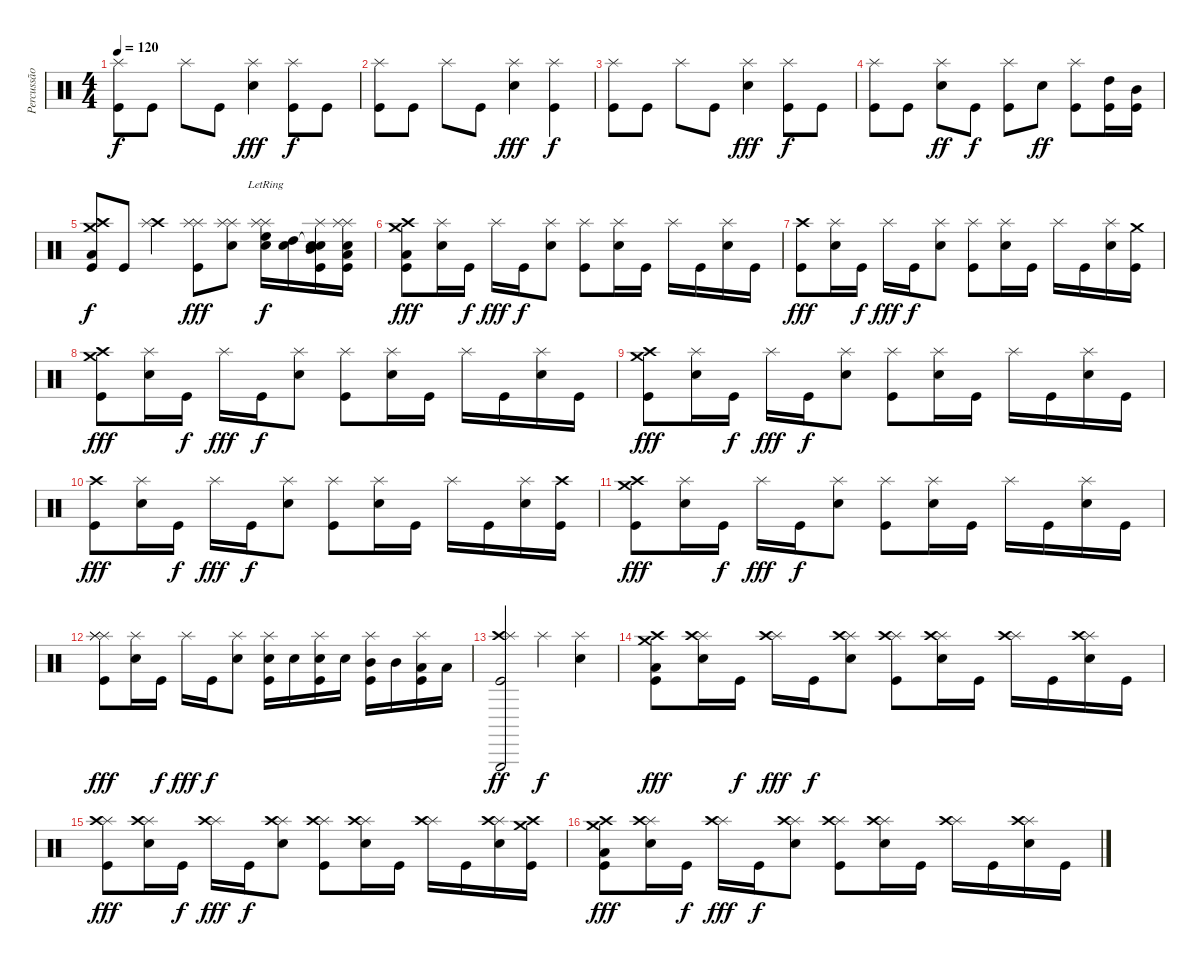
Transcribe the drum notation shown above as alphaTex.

\track ("Percussão" "Percussão") {instrument percussion}
\staff {score}
\articulation defaults
\ts (4 4)
\tempo 120
\clef neutral
\ks c
("Splash (hit)" "Kick (hit)").8{dy f} "Kick (hit)".8 "Splash (hit)".8 "Kick (hit)".8 ("Splash (hit)" "Snare (hit) 2").4{dy fff} ("Splash (hit)" "Kick (hit)").8{dy f} "Kick (hit)".8 |
("Splash (hit)" "Kick (hit)").8 "Kick (hit)".8 "Splash (hit)".8 "Kick (hit)".8 ("Splash (hit)" "Snare (hit) 2").4{dy fff} ("Splash (hit)" "Kick (hit)").4{dy f} |
("Splash (hit)" "Kick (hit)").8 "Kick (hit)".8 "Splash (hit)".8 "Kick (hit)".8 ("Splash (hit)" "Snare (hit) 2").4{dy fff} ("Splash (hit)" "Kick (hit)").8{dy f} "Kick (hit)".8 |
("Splash (hit)" "Kick (hit)").8 "Kick (hit)".8 ("Splash (hit)" "Snare (hit) 2").8{dy ff} "Kick (hit)".8{dy f} ("Splash (hit)" "Kick (hit)").8 "Snare (hit) 2".8{dy ff} ("Splash (hit)" "Kick (hit)").8 ("High Tom (hit)" "Kick (hit)").16 ("Mid Tom (hit)" "Kick (hit)").16 |
("Crash high (hit)" "Crash medium (hit)" "Low Tom (hit)" "Kick (hit)").8{dy f} "Kick (hit)".8 ("Crash high (hit)" "Splash (hit)").4 ("Splash (hit)" "Splash (hit)" "Kick (hit)").8{dy fff} ("Splash (hit)" "Splash (hit)" "Snare (hit) 2").8 ("Splash (hit)"{lr} "Splash (hit)"{lr} "High Floor Tom (hit)" "Snare (hit) 2").16{dy f} ("High Tom (hit)" "Snare (hit) 2").16 ("Splash (hit)" "Snare (hit)"{t} "Mid Tom (hit)" "Snare (hit) 2" "Kick (hit)").16 ("Splash (hit)" "Splash (hit)" "Low Tom (hit)" "Snare (hit) 2" "Kick (hit)").16 |
("Crash high (hit)" "Crash medium (hit)" "Low Floor Tom (hit)" "Kick (hit)").8{dy fff} ("Splash (hit)" "Snare (hit) 2").16 "Kick (hit)".16{dy f} "Splash (hit)".16{dy fff} "Kick (hit)".16{dy f} ("Splash (hit)" "Snare (hit) 2").8 ("Splash (hit)" "Kick (hit)").8 ("Splash (hit)" "Snare (hit) 2").16 "Kick (hit)".16 "Splash (hit)".16 "Kick (hit)".16 ("Splash (hit)" "Snare (hit) 2").16 "Kick (hit)".16 |
("Crash high (hit)" "Kick (hit)").8{dy fff} ("Splash (hit)" "Snare (hit) 2").16 "Kick (hit)".16{dy f} "Splash (hit)".16{dy fff} "Kick (hit)".16{dy f} ("Splash (hit)" "Snare (hit) 2").8 ("Splash (hit)" "Kick (hit)").8 ("Splash (hit)" "Snare (hit) 2").16 "Kick (hit)".16 "Splash (hit)".16 "Kick (hit)".16 ("Splash (hit)" "Snare (hit) 2").16 ("Crash medium (hit)" "Kick (hit)").16 |
("Crash high (hit)" "Crash medium (hit)" "Kick (hit)").8{dy fff} ("Splash (hit)" "Snare (hit) 2").16 "Kick (hit)".16{dy f} "Splash (hit)".16{dy fff} "Kick (hit)".16{dy f} ("Splash (hit)" "Snare (hit) 2").8 ("Splash (hit)" "Kick (hit)").8 ("Splash (hit)" "Snare (hit) 2").16 "Kick (hit)".16 "Splash (hit)".16 "Kick (hit)".16 ("Splash (hit)" "Snare (hit) 2").16 "Kick (hit)".16 |
("Crash high (hit)" "Crash medium (hit)" "Kick (hit)").8{dy fff} ("Splash (hit)" "Snare (hit) 2").16 "Kick (hit)".16{dy f} "Splash (hit)".16{dy fff} "Kick (hit)".16{dy f} ("Splash (hit)" "Snare (hit) 2").8 ("Splash (hit)" "Kick (hit)").8 ("Splash (hit)" "Snare (hit) 2").16 "Kick (hit)".16 "Splash (hit)".16 "Kick (hit)".16 ("Splash (hit)" "Snare (hit) 2").16 "Kick (hit)".16 |
("Crash high (hit)" "Kick (hit)").8{dy fff} ("Splash (hit)" "Snare (hit) 2").16 "Kick (hit)".16{dy f} "Splash (hit)".16{dy fff} "Kick (hit)".16{dy f} ("Splash (hit)" "Snare (hit) 2").8 ("Splash (hit)" "Kick (hit)").8 ("Splash (hit)" "Snare (hit) 2").16 "Kick (hit)".16 "Splash (hit)".16 "Kick (hit)".16 ("Splash (hit)" "Snare (hit) 2").16 ("Crash high (hit)" "Kick (hit)").16 |
("Crash high (hit)" "Crash medium (hit)" "Kick (hit)").8{dy fff} ("Splash (hit)" "Snare (hit) 2").16 "Kick (hit)".16{dy f} "Splash (hit)".16{dy fff} "Kick (hit)".16{dy f} ("Splash (hit)" "Snare (hit) 2").8 ("Splash (hit)" "Kick (hit)").8 ("Splash (hit)" "Snare (hit) 2").16 "Kick (hit)".16 "Splash (hit)".16 "Kick (hit)".16 ("Splash (hit)" "Snare (hit) 2").16 "Kick (hit)".16 |
("Splash (hit)" "Splash (hit)" "Splash (hit)" "Kick (hit)").8{dy fff} ("Splash (hit)" "Snare (hit) 2").16 "Kick (hit)".16{dy f} "Splash (hit)".16{dy fff} "Kick (hit)".16{dy f} ("Splash (hit)" "Snare (hit) 2").8 ("Splash (hit)" "Snare (hit) 2" "Kick (hit)").16 "Snare (hit) 2".16 ("Splash (hit)" "Snare (hit) 2" "Kick (hit)").16 "Snare (hit) 2".16 ("Splash (hit)" "Mid Tom (hit)" "Kick (hit)").16 "Mid Tom (hit)".16 ("Splash (hit)" "Low Tom (hit)" "Kick (hit)").16 "Low Tom (hit)".16 |
("Crash high (hit)" "Splash (hit)" "Triangle (hit)" "Kick (hit)").2{dy ff} "Splash (hit)".4{dy f} ("Splash (hit)" "Snare (hit) 2").4 |
("Crash high (hit)" "Crash medium (hit)" "Low Floor Tom (hit)" "Kick (hit)").8{dy fff} ("Splash (hit)" "Crash high (hit)" "Snare (hit) 2").16 "Kick (hit)".16{dy f} ("Splash (hit)" "Crash high (hit)").16{dy fff} "Kick (hit)".16{dy f} ("Splash (hit)" "Crash high (hit)" "Snare (hit) 2").8 ("Splash (hit)" "Crash high (hit)" "Kick (hit)").8 ("Splash (hit)" "Crash high (hit)" "Snare (hit) 2").16 "Kick (hit)".16 ("Splash (hit)" "Crash high (hit)").16 "Kick (hit)".16 ("Splash (hit)" "Crash high (hit)" "Snare (hit) 2").16 "Kick (hit)".16 |
("Splash (hit)" "Crash high (hit)" "Kick (hit)").8{dy fff} ("Splash (hit)" "Crash high (hit)" "Snare (hit) 2").16 "Kick (hit)".16{dy f} ("Splash (hit)" "Crash high (hit)").16{dy fff} "Kick (hit)".16{dy f} ("Splash (hit)" "Crash high (hit)" "Snare (hit) 2").8 ("Splash (hit)" "Crash high (hit)" "Kick (hit)").8 ("Splash (hit)" "Crash high (hit)" "Snare (hit) 2").16 "Kick (hit)".16 ("Splash (hit)" "Crash high (hit)").16 "Kick (hit)".16 ("Splash (hit)" "Crash high (hit)" "Snare (hit) 2").16 ("Crash medium (hit)" "Crash high (hit)" "Kick (hit)").16 |
("Crash high (hit)" "Crash medium (hit)" "Low Floor Tom (hit)" "Kick (hit)").8{dy fff} ("Splash (hit)" "Crash high (hit)" "Snare (hit) 2").16 "Kick (hit)".16{dy f} ("Splash (hit)" "Crash high (hit)").16{dy fff} "Kick (hit)".16{dy f} ("Splash (hit)" "Crash high (hit)" "Snare (hit) 2").8 ("Splash (hit)" "Crash high (hit)" "Kick (hit)").8 ("Splash (hit)" "Crash high (hit)" "Snare (hit) 2").16 "Kick (hit)".16 ("Splash (hit)" "Crash high (hit)").16 "Kick (hit)".16 ("Splash (hit)" "Crash high (hit)" "Snare (hit) 2").16 "Kick (hit)".16
